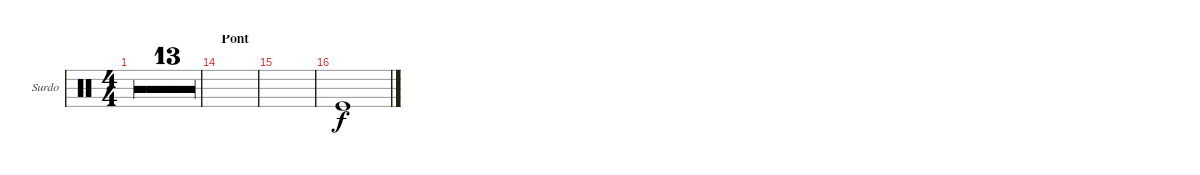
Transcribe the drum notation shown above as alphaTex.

\defaultSystemsLayout 4
\bracketExtendMode groupsimilarinstruments
\firstSystemTrackNameOrientation horizontal
\otherSystemsTrackNameOrientation horizontal
\track ("Surdo" "Surdo") {multiBarRest instrument percussion}
\staff {score}
\articulation defaults
\ts (4 4)
\tempo 120
\clef neutral
\ks c
|
|
|
|
|
|
|
|
|
|
|
|
|
\section ("" "Pont")
|
|
"Kick (hit)".1
